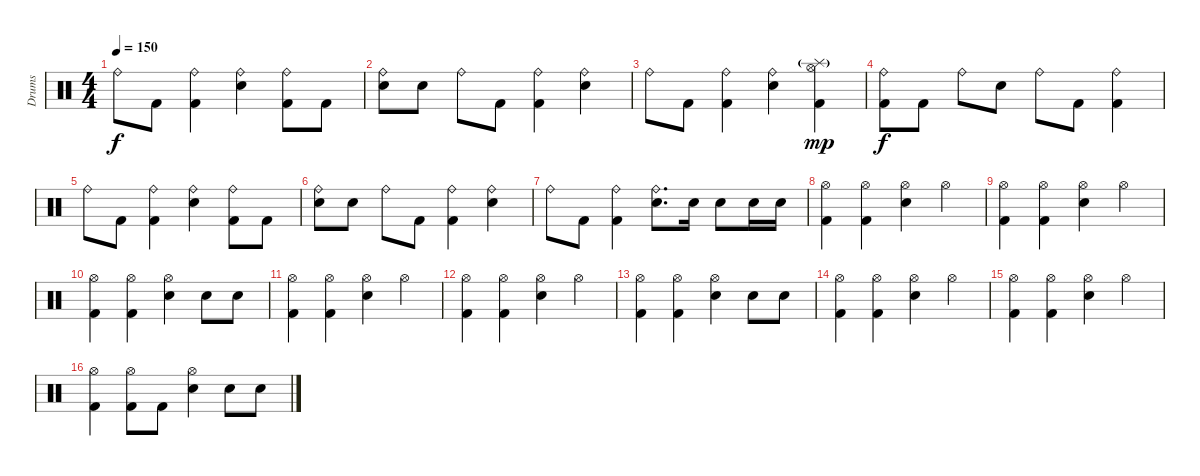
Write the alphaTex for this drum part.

\track ("Drums" "Drums") {instrument percussion}
\staff {score}
\articulation defaults
\ts (4 4)
\tempo 150
\clef neutral
\ks c "Ride (bell)".8{dy f} "Kick (hit) 2".8
("Ride (bell)" "Kick (hit) 2").4 ("Ride (bell)" "Electric Snare (hit)").4 ("Ride (bell)" "Kick (hit) 2").8 "Kick (hit) 2".8 |
("Ride (bell)" "Electric Snare (hit)").8 "Electric Snare (hit)".8 "Ride (bell)".8 "Kick (hit) 2".8 ("Ride (bell)" "Kick (hit) 2").4 ("Ride (bell)" "Electric Snare (hit)").4 |
"Ride (bell)".8 "Kick (hit) 2".8 ("Ride (bell)" "Kick (hit) 2").4 ("Ride (bell)" "Electric Snare (hit)").4 ("Hi-Hat (open)" "Splash (hit)"{g} "Kick (hit) 2").4{dy mp} |
("Ride (bell)" "Kick (hit) 2").8{dy f} "Kick (hit) 2".8 "Ride (bell)".8 "Electric Snare (hit)".8 "Ride (bell)".8 "Kick (hit) 2".8 ("Ride (bell)" "Kick (hit) 2").4 |
"Ride (bell)".8 "Kick (hit) 2".8 ("Ride (bell)" "Kick (hit) 2").4 ("Ride (bell)" "Electric Snare (hit)").4 ("Ride (bell)" "Kick (hit) 2").8 "Kick (hit) 2".8 |
("Ride (bell)" "Electric Snare (hit)").8 "Electric Snare (hit)".8 "Ride (bell)".8 "Kick (hit) 2".8 ("Ride (bell)" "Kick (hit) 2").4 ("Ride (bell)" "Electric Snare (hit)").4 |
"Ride (bell)".8 "Kick (hit) 2".8 ("Ride (bell)" "Kick (hit) 2").4 ("Ride (bell)" "Electric Snare (hit)").8{d} "Electric Snare (hit)".16 "Electric Snare (hit)".8 "Electric Snare (hit)".16 "Electric Snare (hit)".16 |
("Hi-Hat (open)" "Kick (hit) 2").4 ("Hi-Hat (open)" "Kick (hit) 2").4 ("Hi-Hat (open)" "Electric Snare (hit)").4 "Hi-Hat (open)".4 |
("Hi-Hat (open)" "Kick (hit) 2").4 ("Hi-Hat (open)" "Kick (hit) 2").4 ("Hi-Hat (open)" "Electric Snare (hit)").4 "Hi-Hat (open)".4 |
("Hi-Hat (open)" "Kick (hit) 2").4 ("Hi-Hat (open)" "Kick (hit) 2").4 ("Hi-Hat (open)" "Electric Snare (hit)").4 "Electric Snare (hit)".8 "Electric Snare (hit)".8 |
("Hi-Hat (open)" "Kick (hit) 2").4 ("Hi-Hat (open)" "Kick (hit) 2").4 ("Hi-Hat (open)" "Electric Snare (hit)").4 "Hi-Hat (open)".4 |
("Hi-Hat (open)" "Kick (hit) 2").4 ("Hi-Hat (open)" "Kick (hit) 2").4 ("Hi-Hat (open)" "Electric Snare (hit)").4 "Hi-Hat (open)".4 |
("Hi-Hat (open)" "Kick (hit) 2").4 ("Hi-Hat (open)" "Kick (hit) 2").4 ("Hi-Hat (open)" "Electric Snare (hit)").4 "Electric Snare (hit)".8 "Electric Snare (hit)".8 |
("Hi-Hat (open)" "Kick (hit) 2").4 ("Hi-Hat (open)" "Kick (hit) 2").4 ("Hi-Hat (open)" "Electric Snare (hit)").4 "Hi-Hat (open)".4 |
("Hi-Hat (open)" "Kick (hit) 2").4 ("Hi-Hat (open)" "Kick (hit) 2").4 ("Hi-Hat (open)" "Electric Snare (hit)").4 "Hi-Hat (open)".4 |
("Hi-Hat (open)" "Kick (hit) 2").4 ("Hi-Hat (open)" "Kick (hit) 2").8 "Kick (hit) 2".8 ("Hi-Hat (open)" "Electric Snare (hit)").4 "Electric Snare (hit)".8 "Electric Snare (hit)".8
